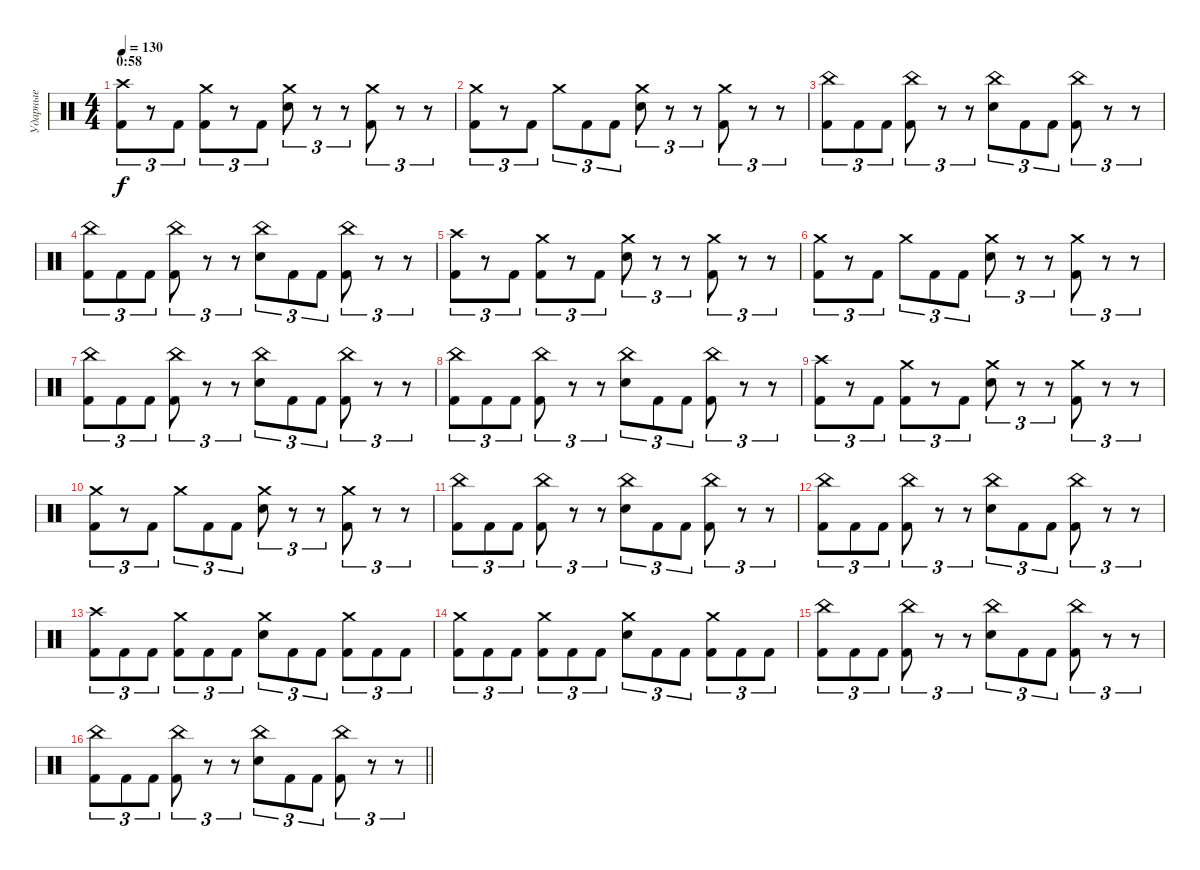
\track ("Ударные" "Ударные") {instrument percussion}
\staff {score}
\articulation defaults
\ts (4 4)
\section ("" "0:58")
\tempo 130
\clef neutral
\ks c
("Crash high (hit)" "Kick (hit) 2").8{tu (3 2) dy f} r.8{tu (3 2)} "Kick (hit) 2".8{tu (3 2)} ("Crash medium (hit)" "Kick (hit) 2").8{tu (3 2)} r.8{tu (3 2)} "Kick (hit) 2".8{tu (3 2)} ("Crash medium (hit)" "Electric Snare (hit)").8{tu (3 2)} r.8{tu (3 2)} r.8{tu (3 2)} ("Crash medium (hit)" "Kick (hit) 2").8{tu (3 2)} r.8{tu (3 2)} r.8{tu (3 2)} |
("Crash medium (hit)" "Kick (hit) 2").8{tu (3 2)} r.8{tu (3 2)} "Kick (hit) 2".8{tu (3 2)} "Crash medium (hit)".8{tu (3 2)} "Kick (hit) 2".8{tu (3 2)} "Kick (hit) 2".8{tu (3 2)} ("Crash medium (hit)" "Electric Snare (hit)").8{tu (3 2)} r.8{tu (3 2)} r.8{tu (3 2)} ("Crash medium (hit)" "Kick (hit) 2").8{tu (3 2)} r.8{tu (3 2)} r.8{tu (3 2)} |
("China (hit)" "Kick (hit) 2").8{tu (3 2)} "Kick (hit) 2".8{tu (3 2)} "Kick (hit) 2".8{tu (3 2)} ("China (hit)" "Kick (hit) 2").8{tu (3 2)} r.8{tu (3 2)} r.8{tu (3 2)} ("China (hit)" "Electric Snare (hit)").8{tu (3 2)} "Kick (hit) 2".8{tu (3 2)} "Kick (hit) 2".8{tu (3 2)} ("China (hit)" "Kick (hit) 2").8{tu (3 2)} r.8{tu (3 2)} r.8{tu (3 2)} |
("China (hit)" "Kick (hit) 2").8{tu (3 2)} "Kick (hit) 2".8{tu (3 2)} "Kick (hit) 2".8{tu (3 2)} ("China (hit)" "Kick (hit) 2").8{tu (3 2)} r.8{tu (3 2)} r.8{tu (3 2)} ("China (hit)" "Electric Snare (hit)").8{tu (3 2)} "Kick (hit) 2".8{tu (3 2)} "Kick (hit) 2".8{tu (3 2)} ("China (hit)" "Kick (hit) 2").8{tu (3 2)} r.8{tu (3 2)} r.8{tu (3 2)} |
("Crash high (hit)" "Kick (hit) 2").8{tu (3 2)} r.8{tu (3 2)} "Kick (hit) 2".8{tu (3 2)} ("Crash medium (hit)" "Kick (hit) 2").8{tu (3 2)} r.8{tu (3 2)} "Kick (hit) 2".8{tu (3 2)} ("Crash medium (hit)" "Electric Snare (hit)").8{tu (3 2)} r.8{tu (3 2)} r.8{tu (3 2)} ("Crash medium (hit)" "Kick (hit) 2").8{tu (3 2)} r.8{tu (3 2)} r.8{tu (3 2)} |
("Crash medium (hit)" "Kick (hit) 2").8{tu (3 2)} r.8{tu (3 2)} "Kick (hit) 2".8{tu (3 2)} "Crash medium (hit)".8{tu (3 2)} "Kick (hit) 2".8{tu (3 2)} "Kick (hit) 2".8{tu (3 2)} ("Crash medium (hit)" "Electric Snare (hit)").8{tu (3 2)} r.8{tu (3 2)} r.8{tu (3 2)} ("Crash medium (hit)" "Kick (hit) 2").8{tu (3 2)} r.8{tu (3 2)} r.8{tu (3 2)} |
("China (hit)" "Kick (hit) 2").8{tu (3 2)} "Kick (hit) 2".8{tu (3 2)} "Kick (hit) 2".8{tu (3 2)} ("China (hit)" "Kick (hit) 2").8{tu (3 2)} r.8{tu (3 2)} r.8{tu (3 2)} ("China (hit)" "Electric Snare (hit)").8{tu (3 2)} "Kick (hit) 2".8{tu (3 2)} "Kick (hit) 2".8{tu (3 2)} ("China (hit)" "Kick (hit) 2").8{tu (3 2)} r.8{tu (3 2)} r.8{tu (3 2)} |
("China (hit)" "Kick (hit) 2").8{tu (3 2)} "Kick (hit) 2".8{tu (3 2)} "Kick (hit) 2".8{tu (3 2)} ("China (hit)" "Kick (hit) 2").8{tu (3 2)} r.8{tu (3 2)} r.8{tu (3 2)} ("China (hit)" "Electric Snare (hit)").8{tu (3 2)} "Kick (hit) 2".8{tu (3 2)} "Kick (hit) 2".8{tu (3 2)} ("China (hit)" "Kick (hit) 2").8{tu (3 2)} r.8{tu (3 2)} r.8{tu (3 2)} |
("Crash high (hit)" "Kick (hit) 2").8{tu (3 2)} r.8{tu (3 2)} "Kick (hit) 2".8{tu (3 2)} ("Crash medium (hit)" "Kick (hit) 2").8{tu (3 2)} r.8{tu (3 2)} "Kick (hit) 2".8{tu (3 2)} ("Crash medium (hit)" "Electric Snare (hit)").8{tu (3 2)} r.8{tu (3 2)} r.8{tu (3 2)} ("Crash medium (hit)" "Kick (hit) 2").8{tu (3 2)} r.8{tu (3 2)} r.8{tu (3 2)} |
("Crash medium (hit)" "Kick (hit) 2").8{tu (3 2)} r.8{tu (3 2)} "Kick (hit) 2".8{tu (3 2)} "Crash medium (hit)".8{tu (3 2)} "Kick (hit) 2".8{tu (3 2)} "Kick (hit) 2".8{tu (3 2)} ("Crash medium (hit)" "Electric Snare (hit)").8{tu (3 2)} r.8{tu (3 2)} r.8{tu (3 2)} ("Crash medium (hit)" "Kick (hit) 2").8{tu (3 2)} r.8{tu (3 2)} r.8{tu (3 2)} |
("China (hit)" "Kick (hit) 2").8{tu (3 2)} "Kick (hit) 2".8{tu (3 2)} "Kick (hit) 2".8{tu (3 2)} ("China (hit)" "Kick (hit) 2").8{tu (3 2)} r.8{tu (3 2)} r.8{tu (3 2)} ("China (hit)" "Electric Snare (hit)").8{tu (3 2)} "Kick (hit) 2".8{tu (3 2)} "Kick (hit) 2".8{tu (3 2)} ("China (hit)" "Kick (hit) 2").8{tu (3 2)} r.8{tu (3 2)} r.8{tu (3 2)} |
("China (hit)" "Kick (hit) 2").8{tu (3 2)} "Kick (hit) 2".8{tu (3 2)} "Kick (hit) 2".8{tu (3 2)} ("China (hit)" "Kick (hit) 2").8{tu (3 2)} r.8{tu (3 2)} r.8{tu (3 2)} ("China (hit)" "Electric Snare (hit)").8{tu (3 2)} "Kick (hit) 2".8{tu (3 2)} "Kick (hit) 2".8{tu (3 2)} ("China (hit)" "Kick (hit) 2").8{tu (3 2)} r.8{tu (3 2)} r.8{tu (3 2)} |
("Crash high (hit)" "Kick (hit) 2").8{tu (3 2)} "Kick (hit) 2".8{tu (3 2)} "Kick (hit) 2".8{tu (3 2)} ("Crash medium (hit)" "Kick (hit) 2").8{tu (3 2)} "Kick (hit) 2".8{tu (3 2)} "Kick (hit) 2".8{tu (3 2)} ("Crash medium (hit)" "Electric Snare (hit)").8{tu (3 2)} "Kick (hit) 2".8{tu (3 2)} "Kick (hit) 2".8{tu (3 2)} ("Crash medium (hit)" "Kick (hit) 2").8{tu (3 2)} "Kick (hit) 2".8{tu (3 2)} "Kick (hit) 2".8{tu (3 2)} |
("Crash medium (hit)" "Kick (hit) 2").8{tu (3 2)} "Kick (hit) 2".8{tu (3 2)} "Kick (hit) 2".8{tu (3 2)} ("Crash medium (hit)" "Kick (hit) 2").8{tu (3 2)} "Kick (hit) 2".8{tu (3 2)} "Kick (hit) 2".8{tu (3 2)} ("Crash medium (hit)" "Electric Snare (hit)").8{tu (3 2)} "Kick (hit) 2".8{tu (3 2)} "Kick (hit) 2".8{tu (3 2)} ("Crash medium (hit)" "Kick (hit) 2").8{tu (3 2)} "Kick (hit) 2".8{tu (3 2)} "Kick (hit) 2".8{tu (3 2)} |
("China (hit)" "Kick (hit) 2").8{tu (3 2)} "Kick (hit) 2".8{tu (3 2)} "Kick (hit) 2".8{tu (3 2)} ("China (hit)" "Kick (hit) 2").8{tu (3 2)} r.8{tu (3 2)} r.8{tu (3 2)} ("China (hit)" "Electric Snare (hit)").8{tu (3 2)} "Kick (hit) 2".8{tu (3 2)} "Kick (hit) 2".8{tu (3 2)} ("China (hit)" "Kick (hit) 2").8{tu (3 2)} r.8{tu (3 2)} r.8{tu (3 2)} |
\barLineRight lightlight
("China (hit)" "Kick (hit) 2").8{tu (3 2)} "Kick (hit) 2".8{tu (3 2)} "Kick (hit) 2".8{tu (3 2)} ("China (hit)" "Kick (hit) 2").8{tu (3 2)} r.8{tu (3 2)} r.8{tu (3 2)} ("China (hit)" "Electric Snare (hit)").8{tu (3 2)} "Kick (hit) 2".8{tu (3 2)} "Kick (hit) 2".8{tu (3 2)} ("China (hit)" "Kick (hit) 2").8{tu (3 2)} r.8{tu (3 2)} r.8{tu (3 2)}
